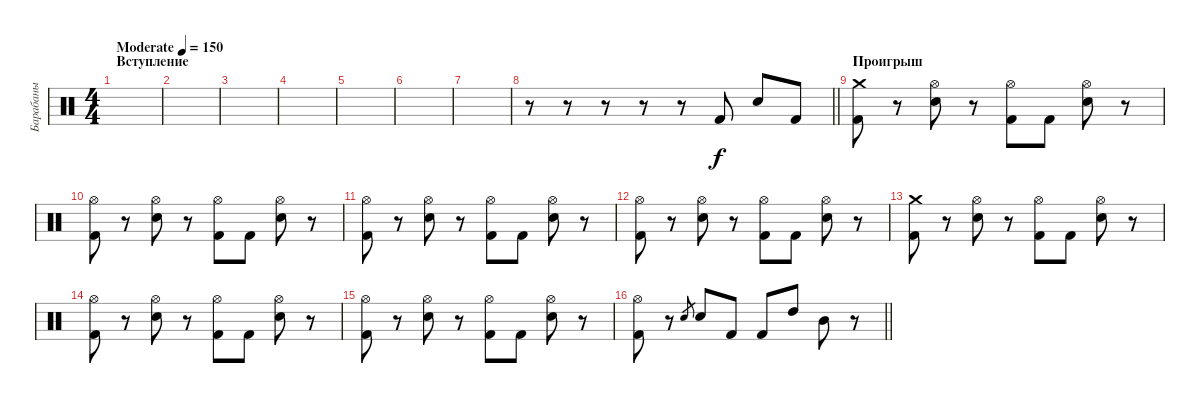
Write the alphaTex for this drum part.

\track ("Барабаны" "Барабаны") {instrument percussion}
\staff {score}
\articulation defaults
\ts (4 4)
\section ("" "Вступление ")
\tempo (150 "Moderate")
\clef neutral
\ks c
|
|
|
|
|
|
|
\barLineRight lightlight
r.8 r.8 r.8 r.8 r.8 "Kick (hit) 2".8 "Electric Snare (hit)".8 "Kick (hit) 2".8 |
\section ("" "Проигрыш ")
("Crash medium (hit)" "Kick (hit) 2").8 r.8 ("Hi-Hat (open)" "Electric Snare (hit)").8 r.8 ("Hi-Hat (open)" "Kick (hit) 2").8 "Kick (hit) 2".8 ("Hi-Hat (open)" "Electric Snare (hit)").8 r.8 |
("Hi-Hat (open)" "Kick (hit) 2").8 r.8 ("Hi-Hat (open)" "Electric Snare (hit)").8 r.8 ("Hi-Hat (open)" "Kick (hit) 2").8 "Kick (hit) 2".8 ("Hi-Hat (open)" "Electric Snare (hit)").8 r.8 |
("Hi-Hat (open)" "Kick (hit) 2").8 r.8 ("Hi-Hat (open)" "Electric Snare (hit)").8 r.8 ("Hi-Hat (open)" "Kick (hit) 2").8 "Kick (hit) 2".8 ("Hi-Hat (open)" "Electric Snare (hit)").8 r.8 |
("Hi-Hat (open)" "Kick (hit) 2").8 r.8 ("Hi-Hat (open)" "Electric Snare (hit)").8 r.8 ("Hi-Hat (open)" "Kick (hit) 2").8 "Kick (hit) 2".8 ("Hi-Hat (open)" "Electric Snare (hit)").8 r.8 |
("Crash medium (hit)" "Kick (hit) 2").8 r.8 ("Hi-Hat (open)" "Electric Snare (hit)").8 r.8 ("Hi-Hat (open)" "Kick (hit) 2").8 "Kick (hit) 2".8 ("Hi-Hat (open)" "Electric Snare (hit)").8 r.8 |
("Hi-Hat (open)" "Kick (hit) 2").8 r.8 ("Hi-Hat (open)" "Electric Snare (hit)").8 r.8 ("Hi-Hat (open)" "Kick (hit) 2").8 "Kick (hit) 2".8 ("Hi-Hat (open)" "Electric Snare (hit)").8 r.8 |
("Hi-Hat (open)" "Kick (hit) 2").8 r.8 ("Hi-Hat (open)" "Electric Snare (hit)").8 r.8 ("Hi-Hat (open)" "Kick (hit) 2").8 "Kick (hit) 2".8 ("Hi-Hat (open)" "Electric Snare (hit)").8 r.8 |
\barLineRight lightlight
("Hi-Hat (open)" "Kick (hit) 2").8 r.8 "Electric Snare (hit)".8{gr} "Electric Snare (hit)".8 "Kick (hit) 2".8 "Kick (hit) 2".8 "High Tom (hit)".8 "Mid Tom (hit)".8 r.8
